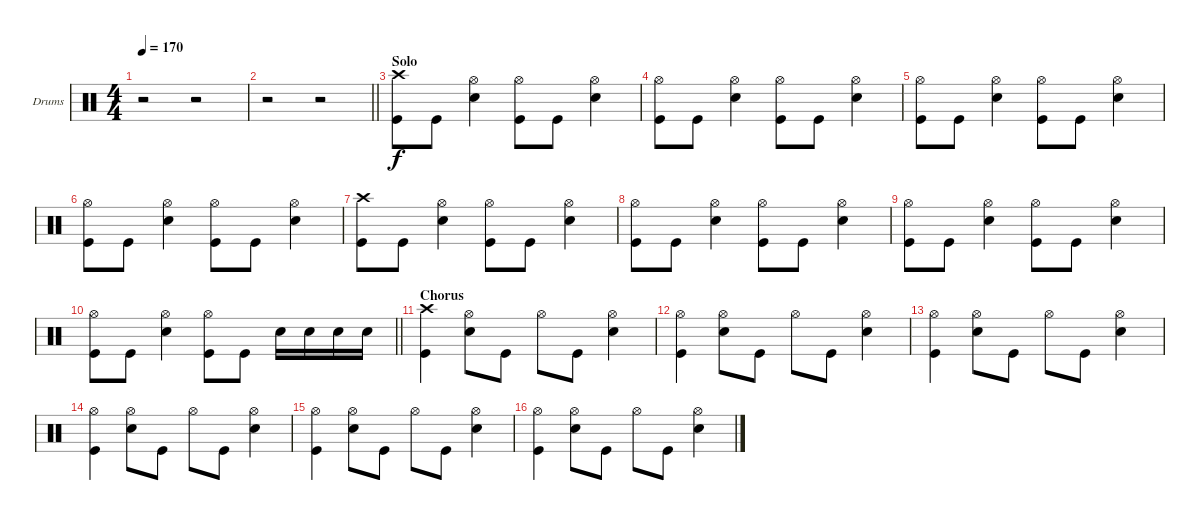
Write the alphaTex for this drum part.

\bracketExtendMode groupsimilarinstruments
\firstSystemTrackNameOrientation horizontal
\otherSystemsTrackNameOrientation horizontal
\track ("Drumkit" "Drums") {instrument percussion}
\staff {score}
\articulation defaults
\ts (4 4)
\tempo 170
\clef neutral
\ks c
r.2{dy f} r.2 |
\barLineRight lightlight
r.2 r.2 |
\section ("" "Solo")
("Crash high (hit)" "Kick (hit)").8 "Kick (hit)".8 ("Hi-Hat (open)" "Snare (hit) 2").4 ("Hi-Hat (open)" "Kick (hit)").8 "Kick (hit)".8 ("Hi-Hat (open)" "Snare (hit) 2").4 |
("Hi-Hat (open)" "Kick (hit)").8 "Kick (hit)".8 ("Hi-Hat (open)" "Snare (hit) 2").4 ("Hi-Hat (open)" "Kick (hit)").8 "Kick (hit)".8 ("Hi-Hat (open)" "Snare (hit) 2").4 |
("Hi-Hat (open)" "Kick (hit)").8 "Kick (hit)".8 ("Hi-Hat (open)" "Snare (hit) 2").4 ("Hi-Hat (open)" "Kick (hit)").8 "Kick (hit)".8 ("Hi-Hat (open)" "Snare (hit) 2").4 |
("Hi-Hat (open)" "Kick (hit)").8 "Kick (hit)".8 ("Hi-Hat (open)" "Snare (hit) 2").4 ("Hi-Hat (open)" "Kick (hit)").8 "Kick (hit)".8 ("Hi-Hat (open)" "Snare (hit) 2").4 |
("Crash high (hit)" "Kick (hit)").8 "Kick (hit)".8 ("Hi-Hat (open)" "Snare (hit) 2").4 ("Hi-Hat (open)" "Kick (hit)").8 "Kick (hit)".8 ("Hi-Hat (open)" "Snare (hit) 2").4 |
("Hi-Hat (open)" "Kick (hit)").8 "Kick (hit)".8 ("Hi-Hat (open)" "Snare (hit) 2").4 ("Hi-Hat (open)" "Kick (hit)").8 "Kick (hit)".8 ("Hi-Hat (open)" "Snare (hit) 2").4 |
("Hi-Hat (open)" "Kick (hit)").8 "Kick (hit)".8 ("Hi-Hat (open)" "Snare (hit) 2").4 ("Hi-Hat (open)" "Kick (hit)").8 "Kick (hit)".8 ("Hi-Hat (open)" "Snare (hit) 2").4 |
\barLineRight lightlight
("Hi-Hat (open)" "Kick (hit)").8 "Kick (hit)".8 ("Hi-Hat (open)" "Snare (hit) 2").4 ("Hi-Hat (open)" "Kick (hit)").8 "Kick (hit)".8 "Snare (hit) 2".16 "Snare (hit) 2".16 "Snare (hit) 2".16 "Snare (hit) 2".16 |
\section ("" "Chorus")
("Crash high (hit)" "Kick (hit)").4 ("Hi-Hat (open)" "Snare (hit) 2").8 "Kick (hit)".8 "Hi-Hat (open)".8 "Kick (hit)".8 ("Hi-Hat (open)" "Snare (hit) 2").4 |
("Hi-Hat (open)" "Kick (hit)").4 ("Hi-Hat (open)" "Snare (hit) 2").8 "Kick (hit)".8 "Hi-Hat (open)".8 "Kick (hit)".8 ("Hi-Hat (open)" "Snare (hit) 2").4 |
("Hi-Hat (open)" "Kick (hit)").4 ("Hi-Hat (open)" "Snare (hit) 2").8 "Kick (hit)".8 "Hi-Hat (open)".8 "Kick (hit)".8 ("Hi-Hat (open)" "Snare (hit) 2").4 |
("Hi-Hat (open)" "Kick (hit)").4 ("Hi-Hat (open)" "Snare (hit) 2").8 "Kick (hit)".8 "Hi-Hat (open)".8 "Kick (hit)".8 ("Hi-Hat (open)" "Snare (hit) 2").4 |
("Hi-Hat (open)" "Kick (hit)").4 ("Hi-Hat (open)" "Snare (hit) 2").8 "Kick (hit)".8 "Hi-Hat (open)".8 "Kick (hit)".8 ("Hi-Hat (open)" "Snare (hit) 2").4 |
("Hi-Hat (open)" "Kick (hit)").4 ("Hi-Hat (open)" "Snare (hit) 2").8 "Kick (hit)".8 "Hi-Hat (open)".8 "Kick (hit)".8 ("Hi-Hat (open)" "Snare (hit) 2").4
